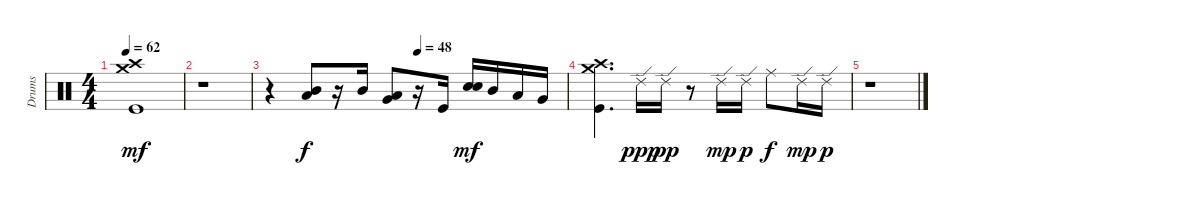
\track ("Drums" "Drums") {instrument percussion}
\staff {score}
\articulation defaults
\ts (4 4)
\tempo 62
\clef neutral
\ks aminor
("Crash high (hit)" "Crash medium (hit)" "Kick (hit)").1{dy mf} |
r.1 |
\tempo (48 0.5)
r.4 ("Mid Tom (hit)" "Low Tom (hit)").8{dy f} r.16 "Mid Tom (hit)".16 ("Low Tom (hit)" "Very Low Tom (hit)").8 r.16 "Kick (hit)".16 ("Snare (hit) 2" "Snare (hit) 2").16{bd 60 dy mf} "Mid Tom (hit)".16 "Low Tom (hit)".16 "Very Low Tom (hit)".16 |
("Crash high (hit)" "Crash medium (hit)" "Kick (hit)").4{d} "Ride (edge) 2".16{dy ppp} "Ride (edge) 2".16{dy pp} r.8 "Ride (edge) 2".16{dy mp} "Ride (edge) 2".16{dy p} "Ride (middle)".8{dy f} "Ride (edge) 2".16{dy mp} "Ride (edge) 2".16{dy p} |
r.1
